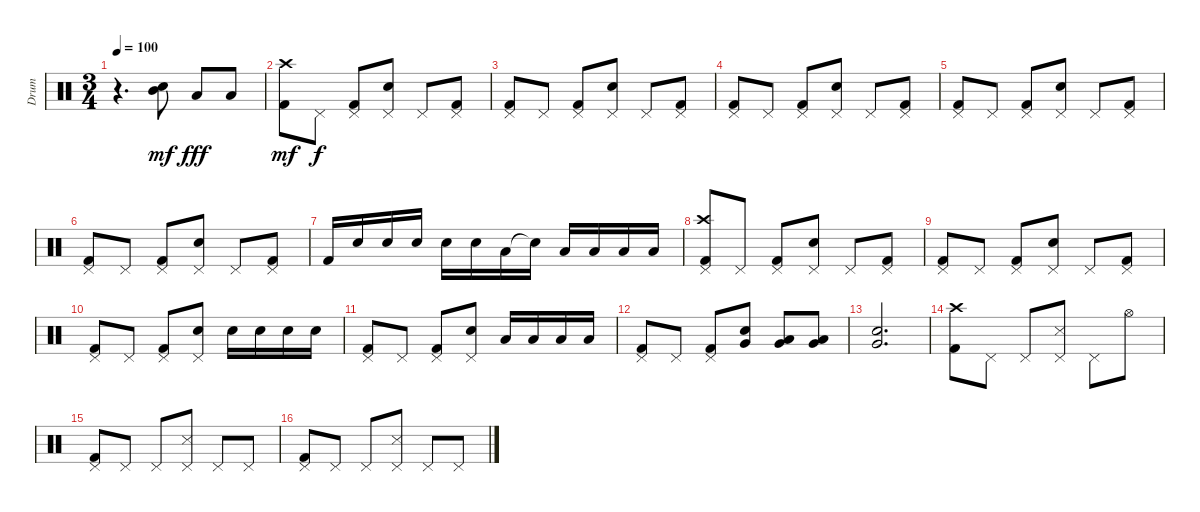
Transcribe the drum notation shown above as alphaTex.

\track ("Drum" "Drum") {instrument percussion}
\staff {score}
\articulation defaults
\ts (3 4)
\tempo 100
\clef neutral
\ks c
r.4{d dy mf} ("Snare (hit) 2" "Mid Tom (hit)").8{bd 240} "Low Tom (hit)".8{dy fff} "Low Tom (hit)".8 |
("Kick (hit) 2" "Crash high (hit)").8{dy mf} "Pedal Hi-Hat (hit)".8{dy f} ("Kick (hit) 2" "Pedal Hi-Hat (hit)").8 ("Snare (hit) 2" "Pedal Hi-Hat (hit)").8 "Pedal Hi-Hat (hit)".8 ("Kick (hit) 2" "Pedal Hi-Hat (hit)").8 |
("Kick (hit) 2" "Pedal Hi-Hat (hit)").8 "Pedal Hi-Hat (hit)".8 ("Kick (hit) 2" "Pedal Hi-Hat (hit)").8 ("Snare (hit) 2" "Pedal Hi-Hat (hit)").8 "Pedal Hi-Hat (hit)".8 ("Kick (hit) 2" "Pedal Hi-Hat (hit)").8 |
("Kick (hit) 2" "Pedal Hi-Hat (hit)").8 "Pedal Hi-Hat (hit)".8 ("Kick (hit) 2" "Pedal Hi-Hat (hit)").8 ("Snare (hit) 2" "Pedal Hi-Hat (hit)").8 "Pedal Hi-Hat (hit)".8 ("Kick (hit) 2" "Pedal Hi-Hat (hit)").8 |
("Kick (hit) 2" "Pedal Hi-Hat (hit)").8 "Pedal Hi-Hat (hit)".8 ("Kick (hit) 2" "Pedal Hi-Hat (hit)").8 ("Snare (hit) 2" "Pedal Hi-Hat (hit)").8 "Pedal Hi-Hat (hit)".8 ("Kick (hit) 2" "Pedal Hi-Hat (hit)").8 |
("Kick (hit) 2" "Pedal Hi-Hat (hit)").8 "Pedal Hi-Hat (hit)".8 ("Kick (hit) 2" "Pedal Hi-Hat (hit)").8 ("Snare (hit) 2" "Pedal Hi-Hat (hit)").8 "Pedal Hi-Hat (hit)".8 ("Kick (hit) 2" "Pedal Hi-Hat (hit)").8 |
"Kick (hit) 2".16 "Snare (hit) 2".16 "Snare (hit) 2".16 "Snare (hit) 2".16 "Snare (hit) 2".16 "Snare (hit) 2".16 "Low Tom (hit)".16 "Snare (hit)"{t}.16 "Low Tom (hit)".16 "Low Tom (hit)".16 "Low Tom (hit)".16 "Low Tom (hit)".16 |
("Kick (hit) 2" "Pedal Hi-Hat (hit)" "Crash high (hit)").8 "Pedal Hi-Hat (hit)".8 ("Kick (hit) 2" "Pedal Hi-Hat (hit)").8 ("Snare (hit) 2" "Pedal Hi-Hat (hit)").8 "Pedal Hi-Hat (hit)".8 ("Kick (hit) 2" "Pedal Hi-Hat (hit)").8 |
("Kick (hit) 2" "Pedal Hi-Hat (hit)").8 "Pedal Hi-Hat (hit)".8 ("Kick (hit) 2" "Pedal Hi-Hat (hit)").8 ("Snare (hit) 2" "Pedal Hi-Hat (hit)").8 "Pedal Hi-Hat (hit)".8 ("Kick (hit) 2" "Pedal Hi-Hat (hit)").8 |
("Kick (hit) 2" "Pedal Hi-Hat (hit)").8 "Pedal Hi-Hat (hit)".8 ("Kick (hit) 2" "Pedal Hi-Hat (hit)").8 ("Snare (hit) 2" "Pedal Hi-Hat (hit)").8 "Snare (hit) 2".16 "Snare (hit) 2".16 "Snare (hit) 2".16 "Snare (hit) 2".16 |
("Kick (hit) 2" "Pedal Hi-Hat (hit)").8 "Pedal Hi-Hat (hit)".8 ("Kick (hit) 2" "Pedal Hi-Hat (hit)").8 ("Snare (hit) 2" "Pedal Hi-Hat (hit)").8 "Low Tom (hit)".16 "Low Tom (hit)".16 "Low Tom (hit)".16 "Low Tom (hit)".16 |
("Kick (hit) 2" "Pedal Hi-Hat (hit)").8 "Pedal Hi-Hat (hit)".8 ("Kick (hit) 2" "Pedal Hi-Hat (hit)").8 ("Snare (hit) 2" "Very Low Tom (hit)").8{bd 30} ("Low Tom (hit)" "Very Low Tom (hit)").8{bd 30} ("Low Tom (hit)" "Very Low Tom (hit)").8{bd 30} |
("Snare (hit) 2" "Very Low Tom (hit)").2{d bd 30} |
("Kick (hit) 2" "Crash high (hit)").8 "Pedal Hi-Hat (hit)".8 "Pedal Hi-Hat (hit)".8 ("Snare (side stick) 3" "Pedal Hi-Hat (hit)").8 "Pedal Hi-Hat (hit)".8 "Hi-Hat (open)".8 |
("Kick (hit) 2" "Pedal Hi-Hat (hit)").8 "Pedal Hi-Hat (hit)".8 "Pedal Hi-Hat (hit)".8 ("Snare (side stick) 3" "Pedal Hi-Hat (hit)").8 "Pedal Hi-Hat (hit)".8 "Pedal Hi-Hat (hit)".8 |
("Kick (hit) 2" "Pedal Hi-Hat (hit)").8 "Pedal Hi-Hat (hit)".8 "Pedal Hi-Hat (hit)".8 ("Snare (side stick) 3" "Pedal Hi-Hat (hit)").8 "Pedal Hi-Hat (hit)".8 "Pedal Hi-Hat (hit)".8
